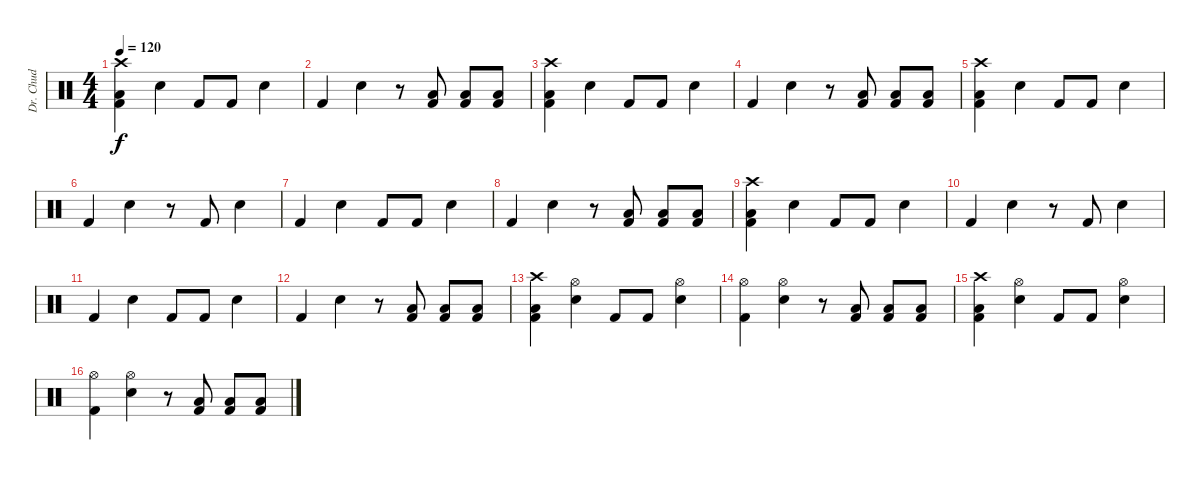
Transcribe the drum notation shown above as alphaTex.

\track ("Dr. Chud" "Dr. Chud") {instrument percussion}
\staff {score}
\articulation defaults
\ts (4 4)
\tempo 120
\clef neutral
\ks c
("Crash high (hit)" "Low Floor Tom (hit)" "Kick (hit) 2").4{dy f} "Snare (hit) 2".4 "Kick (hit) 2".8 "Kick (hit) 2".8 "Snare (hit) 2".4 |
"Kick (hit) 2".4 "Snare (hit) 2".4 r.8 ("Low Floor Tom (hit)" "Kick (hit) 2").8 ("Low Floor Tom (hit)" "Kick (hit) 2").8 ("Low Floor Tom (hit)" "Kick (hit) 2").8 |
("Crash high (hit)" "Low Floor Tom (hit)" "Kick (hit) 2").4 "Snare (hit) 2".4 "Kick (hit) 2".8 "Kick (hit) 2".8 "Snare (hit) 2".4 |
"Kick (hit) 2".4 "Snare (hit) 2".4 r.8 ("Low Floor Tom (hit)" "Kick (hit) 2").8 ("Low Floor Tom (hit)" "Kick (hit) 2").8 ("Low Floor Tom (hit)" "Kick (hit) 2").8 |
("Crash high (hit)" "Low Floor Tom (hit)" "Kick (hit) 2").4 "Snare (hit) 2".4 "Kick (hit) 2".8 "Kick (hit) 2".8 "Snare (hit) 2".4 |
"Kick (hit) 2".4 "Snare (hit) 2".4 r.8 "Kick (hit) 2".8 "Snare (hit) 2".4 |
"Kick (hit) 2".4 "Snare (hit) 2".4 "Kick (hit) 2".8 "Kick (hit) 2".8 "Snare (hit) 2".4 |
"Kick (hit) 2".4 "Snare (hit) 2".4 r.8 ("Low Floor Tom (hit)" "Kick (hit) 2").8 ("Low Floor Tom (hit)" "Kick (hit) 2").8 ("Low Floor Tom (hit)" "Kick (hit) 2").8 |
("Crash high (hit)" "Low Floor Tom (hit)" "Kick (hit) 2").4 "Snare (hit) 2".4 "Kick (hit) 2".8 "Kick (hit) 2".8 "Snare (hit) 2".4 |
"Kick (hit) 2".4 "Snare (hit) 2".4 r.8 "Kick (hit) 2".8 "Snare (hit) 2".4 |
"Kick (hit) 2".4 "Snare (hit) 2".4 "Kick (hit) 2".8 "Kick (hit) 2".8 "Snare (hit) 2".4 |
"Kick (hit) 2".4 "Snare (hit) 2".4 r.8 ("Low Floor Tom (hit)" "Kick (hit) 2").8 ("Low Floor Tom (hit)" "Kick (hit) 2").8 ("Low Floor Tom (hit)" "Kick (hit) 2").8 |
("Crash high (hit)" "Low Floor Tom (hit)" "Kick (hit) 2").4 ("Hi-Hat (open)" "Snare (hit) 2").4 "Kick (hit) 2".8 "Kick (hit) 2".8 ("Hi-Hat (open)" "Snare (hit) 2").4 |
("Hi-Hat (open)" "Kick (hit) 2").4 ("Hi-Hat (open)" "Snare (hit) 2").4 r.8 ("Low Floor Tom (hit)" "Kick (hit) 2").8 ("Low Floor Tom (hit)" "Kick (hit) 2").8 ("Low Floor Tom (hit)" "Kick (hit) 2").8 |
("Crash high (hit)" "Low Floor Tom (hit)" "Kick (hit) 2").4 ("Hi-Hat (open)" "Snare (hit) 2").4 "Kick (hit) 2".8 "Kick (hit) 2".8 ("Hi-Hat (open)" "Snare (hit) 2").4 |
("Hi-Hat (open)" "Kick (hit) 2").4 ("Hi-Hat (open)" "Snare (hit) 2").4 r.8 ("Low Floor Tom (hit)" "Kick (hit) 2").8 ("Low Floor Tom (hit)" "Kick (hit) 2").8 ("Low Floor Tom (hit)" "Kick (hit) 2").8
